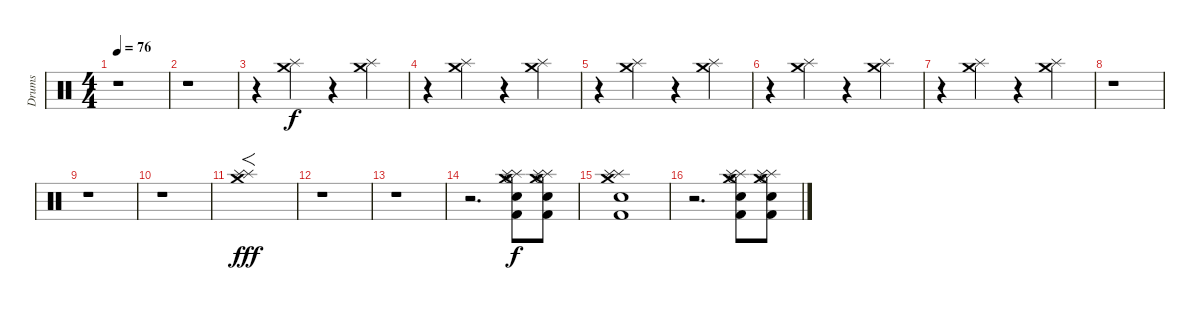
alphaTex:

\track ("Drums" "Drums") {instrument percussion}
\staff {score}
\articulation defaults
\ts (4 4)
\tempo 76
\clef neutral
\ks c
r.1{dy f} |
r.1 |
r.4 ("Splash (hit)" "Crash medium (hit)").4{volume 9} r.4 ("Splash (hit)" "Crash medium (hit)").4 |
r.4 ("Splash (hit)" "Crash medium (hit)").4 r.4 ("Splash (hit)" "Crash medium (hit)").4 |
r.4 ("Splash (hit)" "Crash medium (hit)").4 r.4 ("Splash (hit)" "Crash medium (hit)").4 |
r.4 ("Splash (hit)" "Crash medium (hit)").4 r.4 ("Splash (hit)" "Crash medium (hit)").4 |
r.4 ("Splash (hit)" "Crash medium (hit)").4 r.4 ("Splash (hit)" "Crash medium (hit)").4 |
r.1 |
r.1 |
r.1 |
("Crash medium (hit)" "Splash (hit)" "Splash (hit)").1{f dy fff volume 16} |
r.1 |
r.1 |
r.2{d} ("Hi-Hat (open)" "Kick (hit) 2" "Crash medium (hit)" "Splash (hit)" "Splash (hit)" "Snare (hit) 2").8{dy f volume 13} ("Hi-Hat (open)" "Kick (hit) 2" "Splash (hit)" "Crash medium (hit)" "Splash (hit)" "Snare (hit) 2").8 |
("Kick (hit) 2" "Crash medium (hit)" "Splash (hit)" "Splash (hit)" "Snare (hit) 2").1 |
r.2{d} ("Hi-Hat (open)" "Kick (hit) 2" "Crash medium (hit)" "Splash (hit)" "Splash (hit)" "Snare (hit) 2").8 ("Hi-Hat (open)" "Kick (hit) 2" "Splash (hit)" "Crash medium (hit)" "Splash (hit)" "Snare (hit) 2").8
